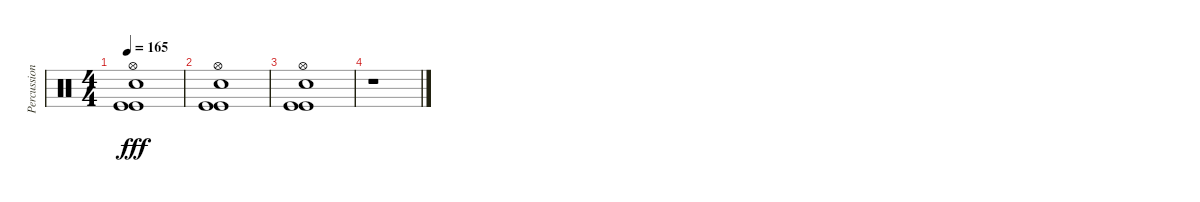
\track ("Percussions" "Percussion") {instrument percussion}
\staff {score}
\articulation defaults
\ts (4 4)
\tempo 165
\clef neutral
\ks c
("Kick (hit)" "Kick (hit)" "Snare (hit) 2" "Hi-Hat (open)").1{dy fff} |
("Kick (hit)" "Kick (hit)" "Snare (hit) 2" "Hi-Hat (open)").1 |
("Kick (hit)" "Kick (hit)" "Snare (hit) 2" "Hi-Hat (open)").1 |
r.1
